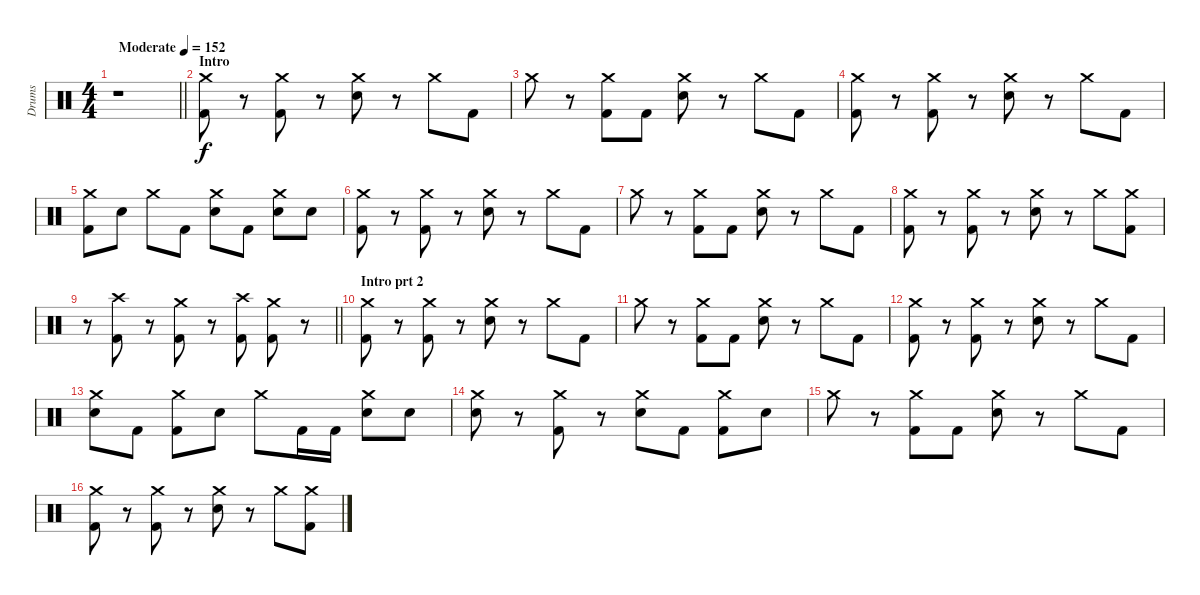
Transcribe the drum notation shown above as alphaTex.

\track ("Drums" "Drums") {instrument percussion}
\staff
\articulation defaults
\ts (4 4)
\tempo (152 "Moderate")
\clef neutral
\barLineRight lightlight
\ks c
r.1{dy f} |
\section ("" "Intro")
("Crash medium (hit)" "Kick (hit) 2").8 r.8 ("Crash medium (hit)" "Kick (hit) 2").8 r.8 ("Crash medium (hit)" "Electric Snare (hit)").8 r.8 "Crash medium (hit)".8 "Kick (hit) 2".8 |
"Crash medium (hit)".8 r.8 ("Crash medium (hit)" "Kick (hit) 2").8 "Kick (hit) 2".8 ("Crash medium (hit)" "Electric Snare (hit)").8 r.8 "Crash medium (hit)".8 "Kick (hit) 2".8 |
("Crash medium (hit)" "Kick (hit) 2").8 r.8 ("Crash medium (hit)" "Kick (hit) 2").8 r.8 ("Crash medium (hit)" "Electric Snare (hit)").8 r.8 "Crash medium (hit)".8 "Kick (hit) 2".8 |
("Crash medium (hit)" "Kick (hit) 2").8 "Electric Snare (hit)".8 "Crash medium (hit)".8 "Kick (hit) 2".8 ("Crash medium (hit)" "Electric Snare (hit)").8 "Kick (hit) 2".8 ("Crash medium (hit)" "Electric Snare (hit)").8 "Electric Snare (hit)".8 |
("Crash medium (hit)" "Kick (hit) 2").8 r.8 ("Crash medium (hit)" "Kick (hit) 2").8 r.8 ("Crash medium (hit)" "Electric Snare (hit)").8 r.8 "Crash medium (hit)".8 "Kick (hit) 2".8 |
"Crash medium (hit)".8 r.8 ("Crash medium (hit)" "Kick (hit) 2").8 "Kick (hit) 2".8 ("Crash medium (hit)" "Electric Snare (hit)").8 r.8 "Crash medium (hit)".8 "Kick (hit) 2".8 |
("Crash medium (hit)" "Kick (hit) 2").8 r.8 ("Crash medium (hit)" "Kick (hit) 2").8 r.8 ("Crash medium (hit)" "Electric Snare (hit)").8 r.8 "Crash medium (hit)".8 ("Crash medium (hit)" "Kick (hit) 2").8 |
\barLineRight lightlight
r.8 ("Crash high (hit)" "Kick (hit) 2").8 r.8 ("Crash medium (hit)" "Kick (hit) 2").8 r.8 ("Crash high (hit)" "Kick (hit) 2").8 ("Crash medium (hit)" "Kick (hit) 2").8 r.8 |
\section ("" "Intro prt 2")
("Crash medium (hit)" "Kick (hit) 2").8 r.8 ("Crash medium (hit)" "Kick (hit) 2").8 r.8 ("Crash medium (hit)" "Electric Snare (hit)").8 r.8 "Crash medium (hit)".8 "Kick (hit) 2".8 |
"Crash medium (hit)".8 r.8 ("Crash medium (hit)" "Kick (hit) 2").8 "Kick (hit) 2".8 ("Crash medium (hit)" "Electric Snare (hit)").8 r.8 "Crash medium (hit)".8 "Kick (hit) 2".8 |
("Crash medium (hit)" "Kick (hit) 2").8 r.8 ("Crash medium (hit)" "Kick (hit) 2").8 r.8 ("Crash medium (hit)" "Electric Snare (hit)").8 r.8 "Crash medium (hit)".8 "Kick (hit) 2".8 |
("Crash medium (hit)" "Electric Snare (hit)").8 "Kick (hit) 2".8 ("Crash medium (hit)" "Kick (hit) 2").8 "Electric Snare (hit)".8 "Crash medium (hit)".8 "Kick (hit) 2".16 "Kick (hit) 2".16 ("Crash medium (hit)" "Electric Snare (hit)").8 "Electric Snare (hit)".8 |
("Crash medium (hit)" "Electric Snare (hit)").8 r.8 ("Crash medium (hit)" "Kick (hit) 2").8 r.8 ("Crash medium (hit)" "Electric Snare (hit)").8 "Kick (hit) 2".8 ("Crash medium (hit)" "Kick (hit) 2").8 "Electric Snare (hit)".8 |
"Crash medium (hit)".8 r.8 ("Crash medium (hit)" "Kick (hit) 2").8 "Kick (hit) 2".8 ("Crash medium (hit)" "Electric Snare (hit)").8 r.8 "Crash medium (hit)".8 "Kick (hit) 2".8 |
("Crash medium (hit)" "Kick (hit) 2").8 r.8 ("Crash medium (hit)" "Kick (hit) 2").8 r.8 ("Crash medium (hit)" "Electric Snare (hit)").8 r.8 "Crash medium (hit)".8 ("Crash medium (hit)" "Kick (hit) 2").8
